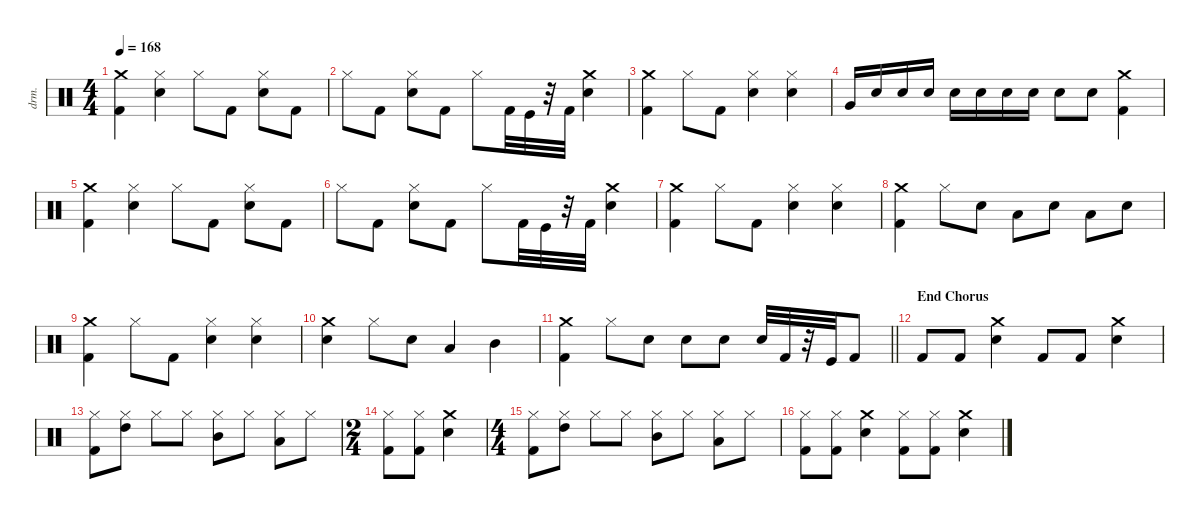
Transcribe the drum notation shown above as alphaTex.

\defaultSystemsLayout 4
\hideDynamics
\bracketExtendMode nobrackets
\otherSystemsTrackNameOrientation horizontal
\track ("Drums" "drm.") {instrument percussion}
\staff {score}
\articulation defaults
\ts (4 4)
\tempo 168
\clef neutral
\ks c
("Kick (hit) 2" "Crash medium (hit)").4{dy fff} ("Hi-Hat (closed)" "Snare (hit) 2").4 "Hi-Hat (closed)".8 "Kick (hit) 2".8 ("Snare (hit) 2" "Hi-Hat (closed)").8 "Kick (hit) 2".8 |
"Hi-Hat (closed)".8 "Kick (hit) 2".8 ("Snare (hit) 2" "Hi-Hat (closed)").8 "Kick (hit) 2".8 "Hi-Hat (closed)".8 "Kick (hit) 2".32 "Kick (hit)".32 r.32 "Kick (hit) 2".32 ("Crash medium (hit)" "Snare (hit) 2").4 |
("Kick (hit) 2" "Crash medium (hit)").4 "Hi-Hat (closed)".8 "Kick (hit) 2".8 ("Snare (hit) 2" "Hi-Hat (closed)").4 ("Hi-Hat (closed)" "Snare (hit) 2").4 |
"Very Low Tom (hit)".16 "Snare (hit) 2".16 "Snare (hit) 2".16 "Snare (hit) 2".16 "Snare (hit) 2".16 "Snare (hit) 2".16 "Snare (hit) 2".16 "Snare (hit) 2".16 "Snare (hit) 2".8 "Snare (hit) 2".8 ("Crash medium (hit)" "Kick (hit) 2").4 |
("Kick (hit) 2" "Crash medium (hit)").4 ("Hi-Hat (closed)" "Snare (hit) 2").4 "Hi-Hat (closed)".8 "Kick (hit) 2".8 ("Snare (hit) 2" "Hi-Hat (closed)").8 "Kick (hit) 2".8 |
"Hi-Hat (closed)".8 "Kick (hit) 2".8 ("Snare (hit) 2" "Hi-Hat (closed)").8 "Kick (hit) 2".8 "Hi-Hat (closed)".8 "Kick (hit) 2".32 "Kick (hit)".32 r.32 "Kick (hit) 2".32 ("Crash medium (hit)" "Snare (hit) 2").4 |
("Kick (hit) 2" "Crash medium (hit)").4 "Hi-Hat (closed)".8 "Kick (hit) 2".8 ("Snare (hit) 2" "Hi-Hat (closed)").4 ("Hi-Hat (closed)" "Snare (hit) 2").4 |
("Kick (hit) 2" "Crash medium (hit)").4 "Hi-Hat (closed)".8 "Snare (hit) 2".8 "Low Tom (hit)".8 "Snare (hit) 2".8 "Low Tom (hit)".8 "Snare (hit) 2".8 |
("Kick (hit) 2" "Crash medium (hit)").4 "Hi-Hat (closed)".8 "Kick (hit) 2".8 ("Snare (hit) 2" "Hi-Hat (closed)").4 ("Hi-Hat (closed)" "Snare (hit) 2").4 |
("Snare (hit) 2" "Crash medium (hit)").4 "Hi-Hat (closed)".8 "Snare (hit) 2".8 "Low Tom (hit)".4 "Mid Tom (hit)".4 |
\barLineRight lightlight
("Kick (hit) 2" "Crash medium (hit)").4 "Hi-Hat (closed)".8 "Snare (hit) 2".8 "Snare (hit) 2".8 "Snare (hit) 2".8 "Snare (hit) 2".32 "Kick (hit) 2".32 r.32 "Kick (hit)".32 "Kick (hit) 2".8 |
\section ("" "End Chorus")
"Kick (hit) 2".8 "Kick (hit) 2".8 ("Snare (hit) 2" "Crash medium (hit)").4 "Kick (hit) 2".8 "Kick (hit) 2".8 ("Crash medium (hit)" "Snare (hit) 2").4 |
("Hi-Hat (closed)" "Kick (hit) 2").8 ("High Tom (hit)" "Hi-Hat (closed)").8 "Hi-Hat (closed)".8 "Hi-Hat (closed)".8 ("Mid Tom (hit)" "Hi-Hat (closed)").8 "Hi-Hat (closed)".8 ("Low Tom (hit)" "Hi-Hat (closed)").8 "Hi-Hat (closed)".8 |
\ts (2 4)
\beaming (8 2 2)
("Kick (hit) 2" "Hi-Hat (closed)").8 ("Kick (hit) 2" "Hi-Hat (closed)").8 ("Snare (hit) 2" "Crash medium (hit)").4 |
\ts (4 4)
\beaming (8 2 2 2 2)
("Hi-Hat (closed)" "Kick (hit) 2").8 ("High Tom (hit)" "Hi-Hat (closed)").8 "Hi-Hat (closed)".8 "Hi-Hat (closed)".8 ("Mid Tom (hit)" "Hi-Hat (closed)").8 "Hi-Hat (closed)".8 ("Hi-Hat (closed)" "Low Tom (hit)").8 "Hi-Hat (closed)".8 |
("Hi-Hat (closed)" "Kick (hit) 2").8 ("Hi-Hat (closed)" "Kick (hit) 2").8 ("Snare (hit) 2" "Crash medium (hit)").4 ("Kick (hit) 2" "Hi-Hat (closed)").8 ("Kick (hit) 2" "Hi-Hat (closed)").8 ("Crash medium (hit)" "Snare (hit) 2").4
